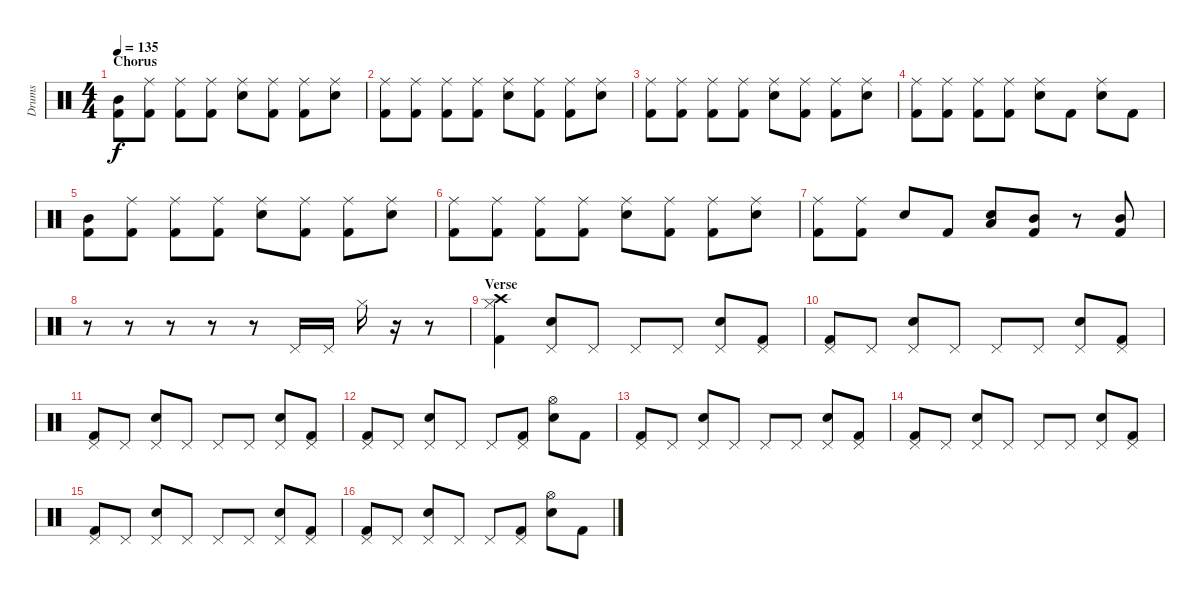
\track ("Drums" "Drums") {instrument percussion}
\staff {score}
\articulation defaults
\ts (4 4)
\section ("" "Chorus")
\tempo 135
\clef neutral
\ks c
("Mid Tom (hit)" "Kick (hit) 2").8{dy f} ("Ride (middle)" "Kick (hit) 2").8 ("Ride (middle)" "Kick (hit) 2").8 ("Ride (middle)" "Kick (hit) 2").8 ("Ride (middle)" "Snare (hit) 2").8 ("Ride (middle)" "Kick (hit) 2").8 ("Ride (middle)" "Kick (hit) 2").8 ("Ride (middle)" "Snare (hit) 2").8 |
("Ride (middle)" "Kick (hit) 2").8 ("Ride (middle)" "Kick (hit) 2").8 ("Ride (middle)" "Kick (hit) 2").8 ("Ride (middle)" "Kick (hit) 2").8 ("Ride (middle)" "Snare (hit) 2").8 ("Ride (middle)" "Kick (hit) 2").8 ("Ride (middle)" "Kick (hit) 2").8 ("Ride (middle)" "Snare (hit) 2").8 |
("Ride (middle)" "Kick (hit) 2").8 ("Ride (middle)" "Kick (hit) 2").8 ("Ride (middle)" "Kick (hit) 2").8 ("Ride (middle)" "Kick (hit) 2").8 ("Ride (middle)" "Snare (hit) 2").8 ("Ride (middle)" "Kick (hit) 2").8 ("Ride (middle)" "Kick (hit) 2").8 ("Ride (middle)" "Snare (hit) 2").8 |
("Ride (middle)" "Kick (hit) 2").8 ("Ride (middle)" "Kick (hit) 2").8 ("Ride (middle)" "Kick (hit) 2").8 ("Ride (middle)" "Kick (hit) 2").8 ("Ride (middle)" "Snare (hit) 2").8 "Kick (hit) 2".8 ("Ride (middle)" "Snare (hit) 2").8 "Kick (hit) 2".8 |
("Mid Tom (hit)" "Kick (hit) 2").8 ("Ride (middle)" "Kick (hit) 2").8 ("Ride (middle)" "Kick (hit) 2").8 ("Ride (middle)" "Kick (hit) 2").8 ("Ride (middle)" "Snare (hit) 2").8 ("Ride (middle)" "Kick (hit) 2").8 ("Ride (middle)" "Kick (hit) 2").8 ("Ride (middle)" "Snare (hit) 2").8 |
("Ride (middle)" "Kick (hit) 2").8 ("Ride (middle)" "Kick (hit) 2").8 ("Ride (middle)" "Kick (hit) 2").8 ("Ride (middle)" "Kick (hit) 2").8 ("Ride (middle)" "Snare (hit) 2").8 ("Ride (middle)" "Kick (hit) 2").8 ("Ride (middle)" "Kick (hit) 2").8 ("Ride (middle)" "Snare (hit) 2").8 |
("Ride (middle)" "Kick (hit) 2").8 ("Ride (middle)" "Kick (hit) 2").8 "Snare (hit) 2".8 "Kick (hit) 2".8 ("Low Floor Tom (hit)" "Snare (hit) 2").8 ("Mid Tom (hit)" "Kick (hit) 2").8 r.8 ("Mid Tom (hit)" "Kick (hit) 2").8 |
r.8 r.8 r.8 r.8 r.8 "Pedal Hi-Hat (hit)".16 "Pedal Hi-Hat (hit)".16 "Hi-Hat (closed)".16 r.16 r.8 |
\section ("" "Verse")
("Crash high (hit)" "Hi-Hat (closed)" "Kick (hit) 2").4 ("Pedal Hi-Hat (hit)" "Snare (hit) 2").8 "Pedal Hi-Hat (hit)".8 "Pedal Hi-Hat (hit)".8 "Pedal Hi-Hat (hit)".8 ("Pedal Hi-Hat (hit)" "Snare (hit) 2").8 ("Pedal Hi-Hat (hit)" "Kick (hit) 2").8 |
("Pedal Hi-Hat (hit)" "Kick (hit) 2").8 "Pedal Hi-Hat (hit)".8 ("Pedal Hi-Hat (hit)" "Snare (hit) 2").8 "Pedal Hi-Hat (hit)".8 "Pedal Hi-Hat (hit)".8 "Pedal Hi-Hat (hit)".8 ("Pedal Hi-Hat (hit)" "Snare (hit) 2").8 ("Pedal Hi-Hat (hit)" "Kick (hit) 2").8 |
("Pedal Hi-Hat (hit)" "Kick (hit) 2").8 "Pedal Hi-Hat (hit)".8 ("Pedal Hi-Hat (hit)" "Snare (hit) 2").8 "Pedal Hi-Hat (hit)".8 "Pedal Hi-Hat (hit)".8 "Pedal Hi-Hat (hit)".8 ("Pedal Hi-Hat (hit)" "Snare (hit) 2").8 ("Pedal Hi-Hat (hit)" "Kick (hit) 2").8 |
("Pedal Hi-Hat (hit)" "Kick (hit) 2").8 "Pedal Hi-Hat (hit)".8 ("Pedal Hi-Hat (hit)" "Snare (hit) 2").8 "Pedal Hi-Hat (hit)".8 "Pedal Hi-Hat (hit)".8 ("Pedal Hi-Hat (hit)" "Kick (hit) 2").8 ("Hi-Hat (open)" "Snare (hit) 2").8 "Kick (hit) 2".8 |
("Pedal Hi-Hat (hit)" "Kick (hit) 2").8 "Pedal Hi-Hat (hit)".8 ("Pedal Hi-Hat (hit)" "Snare (hit) 2").8 "Pedal Hi-Hat (hit)".8 "Pedal Hi-Hat (hit)".8 "Pedal Hi-Hat (hit)".8 ("Pedal Hi-Hat (hit)" "Snare (hit) 2").8 ("Pedal Hi-Hat (hit)" "Kick (hit) 2").8 |
("Pedal Hi-Hat (hit)" "Kick (hit) 2").8 "Pedal Hi-Hat (hit)".8 ("Pedal Hi-Hat (hit)" "Snare (hit) 2").8 "Pedal Hi-Hat (hit)".8 "Pedal Hi-Hat (hit)".8 "Pedal Hi-Hat (hit)".8 ("Pedal Hi-Hat (hit)" "Snare (hit) 2").8 ("Pedal Hi-Hat (hit)" "Kick (hit) 2").8 |
("Pedal Hi-Hat (hit)" "Kick (hit) 2").8 "Pedal Hi-Hat (hit)".8 ("Pedal Hi-Hat (hit)" "Snare (hit) 2").8 "Pedal Hi-Hat (hit)".8 "Pedal Hi-Hat (hit)".8 "Pedal Hi-Hat (hit)".8 ("Pedal Hi-Hat (hit)" "Snare (hit) 2").8 ("Pedal Hi-Hat (hit)" "Kick (hit) 2").8 |
("Pedal Hi-Hat (hit)" "Kick (hit) 2").8 "Pedal Hi-Hat (hit)".8 ("Pedal Hi-Hat (hit)" "Snare (hit) 2").8 "Pedal Hi-Hat (hit)".8 "Pedal Hi-Hat (hit)".8 ("Pedal Hi-Hat (hit)" "Kick (hit) 2").8 ("Hi-Hat (open)" "Snare (hit) 2").8 "Kick (hit) 2".8
